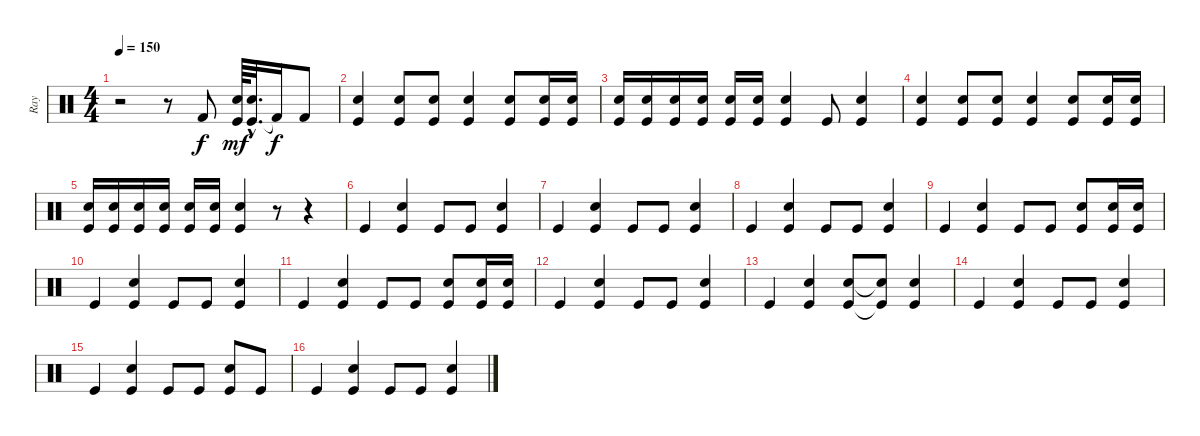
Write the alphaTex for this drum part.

\track ("Ray" "Ray") {instrument percussion}
\staff {score}
\articulation defaults
\ts (4 4)
\tempo 150
\clef neutral
\ks c
r.2{dy f} r.8 "Kick (hit) 2".8 ("Kick (hit)" "Electric Snare (hit)").64{dy mf} ("Kick (hit)"{hac} "Electric Snare (hit)"{hac}).32{d} "Kick (hit) 2"{t}.16{dy f} "Kick (hit) 2".8 |
("Kick (hit)" "Electric Snare (hit)").4 ("Kick (hit)" "Electric Snare (hit)").8 ("Kick (hit)" "Electric Snare (hit)").8 ("Kick (hit)" "Electric Snare (hit)").4 ("Kick (hit)" "Electric Snare (hit)").8 ("Kick (hit)" "Electric Snare (hit)").16 ("Kick (hit)" "Electric Snare (hit)").16 |
("Kick (hit)" "Electric Snare (hit)").16 ("Kick (hit)" "Electric Snare (hit)").16 ("Kick (hit)" "Electric Snare (hit)").16 ("Kick (hit)" "Electric Snare (hit)").16 ("Kick (hit)" "Electric Snare (hit)").16 ("Kick (hit)" "Electric Snare (hit)").16 ("Kick (hit)" "Electric Snare (hit)").4 "Kick (hit)".8 ("Kick (hit)" "Electric Snare (hit)").4 |
("Kick (hit)" "Electric Snare (hit)").4 ("Kick (hit)" "Electric Snare (hit)").8 ("Kick (hit)" "Electric Snare (hit)").8 ("Kick (hit)" "Electric Snare (hit)").4 ("Kick (hit)" "Electric Snare (hit)").8 ("Kick (hit)" "Electric Snare (hit)").16 ("Kick (hit)" "Electric Snare (hit)").16 |
("Kick (hit)" "Electric Snare (hit)").16 ("Kick (hit)" "Electric Snare (hit)").16 ("Kick (hit)" "Electric Snare (hit)").16 ("Kick (hit)" "Electric Snare (hit)").16 ("Kick (hit)" "Electric Snare (hit)").16 ("Kick (hit)" "Electric Snare (hit)").16 ("Kick (hit)" "Electric Snare (hit)").4 r.8 r.4 |
"Kick (hit)".4 ("Kick (hit)" "Electric Snare (hit)").4 "Kick (hit)".8 "Kick (hit)".8 ("Kick (hit)" "Electric Snare (hit)").4 |
"Kick (hit)".4 ("Kick (hit)" "Electric Snare (hit)").4 "Kick (hit)".8 "Kick (hit)".8 ("Kick (hit)" "Electric Snare (hit)").4 |
"Kick (hit)".4 ("Kick (hit)" "Electric Snare (hit)").4 "Kick (hit)".8 "Kick (hit)".8 ("Kick (hit)" "Electric Snare (hit)").4 |
"Kick (hit)".4 ("Kick (hit)" "Electric Snare (hit)").4 "Kick (hit)".8 "Kick (hit)".8 ("Kick (hit)" "Electric Snare (hit)").8 ("Kick (hit)" "Electric Snare (hit)").16 ("Kick (hit)" "Electric Snare (hit)").16 |
"Kick (hit)".4 ("Kick (hit)" "Electric Snare (hit)").4 "Kick (hit)".8 "Kick (hit)".8 ("Kick (hit)" "Electric Snare (hit)").4 |
"Kick (hit)".4 ("Kick (hit)" "Electric Snare (hit)").4 "Kick (hit)".8 "Kick (hit)".8 ("Kick (hit)" "Electric Snare (hit)").8 ("Kick (hit)" "Electric Snare (hit)").16 ("Kick (hit)" "Electric Snare (hit)").16 |
"Kick (hit)".4 ("Kick (hit)" "Electric Snare (hit)").4 "Kick (hit)".8 "Kick (hit)".8 ("Kick (hit)" "Electric Snare (hit)").4 |
"Kick (hit)".4 ("Kick (hit)" "Electric Snare (hit)").4 ("Kick (hit)" "Electric Snare (hit)").8 ("Kick (hit)"{t} "Snare (hit)"{t}).8 ("Kick (hit)" "Electric Snare (hit)").4 |
"Kick (hit)".4 ("Kick (hit)" "Electric Snare (hit)").4 "Kick (hit)".8 "Kick (hit)".8 ("Kick (hit)" "Electric Snare (hit)").4 |
"Kick (hit)".4 ("Kick (hit)" "Electric Snare (hit)").4 "Kick (hit)".8 "Kick (hit)".8 ("Kick (hit)" "Electric Snare (hit)").8 "Kick (hit)".8 |
"Kick (hit)".4 ("Kick (hit)" "Electric Snare (hit)").4 "Kick (hit)".8 "Kick (hit)".8 ("Kick (hit)" "Electric Snare (hit)").4
